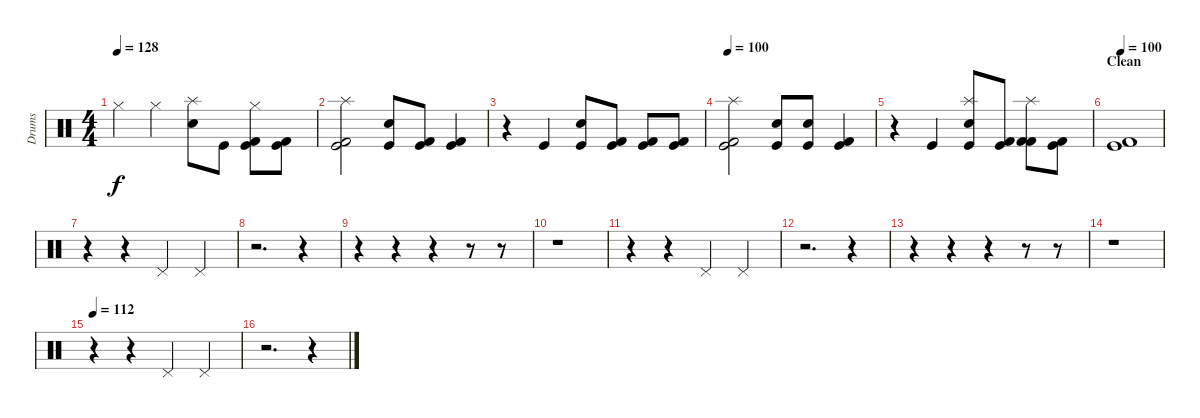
\track ("Drums" "Drums") {instrument percussion}
\staff {score}
\articulation defaults
\ts (4 4)
\tempo 128
\clef neutral
\ks c "Hi-Hat (closed)".4{dy f} "Hi-Hat (closed)".4
("Electric Snare (hit)" "Splash (hit)").8 "Kick (hit)".8 ("Kick (hit) 2" "Hi-Hat (closed)" "Kick (hit)").8 ("Kick (hit) 2" "Kick (hit)").8 |
("Kick (hit) 2" "Kick (hit)" "Splash (hit)").2{volume 10} ("Electric Snare (hit)" "Kick (hit)").8 ("Kick (hit) 2" "Kick (hit)").8 ("Kick (hit) 2" "Kick (hit)").4 |
r.4 "Kick (hit)".4 ("Electric Snare (hit)" "Kick (hit)").8 ("Kick (hit) 2" "Kick (hit)").8 ("Kick (hit) 2" "Kick (hit)").8 ("Kick (hit) 2" "Kick (hit)").8 |
\tempo 100
("Kick (hit) 2" "Kick (hit)" "Splash (hit)").2{volume 6} ("Electric Snare (hit)" "Kick (hit)").8 ("Electric Snare (hit)" "Kick (hit)").8 ("Kick (hit) 2" "Kick (hit)").4 |
r.4 "Kick (hit)".4 ("Electric Snare (hit)" "Kick (hit)" "Splash (hit)").8 ("Kick (hit) 2" "Kick (hit)").8 ("Kick (hit) 2" "Kick (hit) 2" "Splash (hit)").8 ("Kick (hit) 2" "Kick (hit)").8 |
\section ("" "Clean")
\tempo 100
("Kick (hit) 2" "Kick (hit)").1 |
r.4{volume 10} r.4 "Pedal Hi-Hat (hit)".4 "Pedal Hi-Hat (hit)".4 |
r.2{d} r.4 |
r.4 r.4 r.4 r.8 r.8 |
r.1 |
r.4 r.4 "Pedal Hi-Hat (hit)".4 "Pedal Hi-Hat (hit)".4 |
r.2{d} r.4 |
r.4 r.4 r.4 r.8 r.8 |
r.1 |
\tempo 112
r.4 r.4 "Pedal Hi-Hat (hit)".4 "Pedal Hi-Hat (hit)".4 |
r.2{d} r.4
